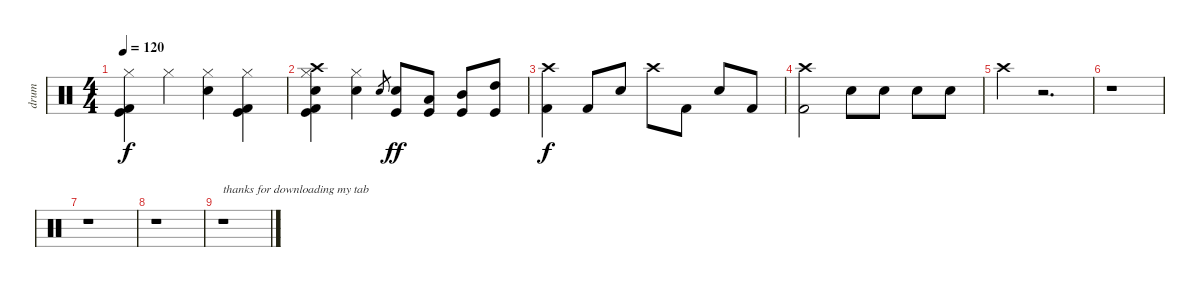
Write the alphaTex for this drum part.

\track ("drum" "drum") {instrument percussion}
\staff {score}
\articulation defaults
\ts (4 4)
\tempo 120
\clef neutral
\ks c
("Hi-Hat (closed)" "Kick (hit) 2" "Kick (hit)").4{dy f} "Hi-Hat (closed)".4 ("Hi-Hat (closed)" "Electric Snare (hit)").4 ("Hi-Hat (closed)" "Kick (hit) 2" "Kick (hit)").4 |
("Hi-Hat (closed)" "Crash high (hit)" "Electric Snare (hit)" "Kick (hit) 2" "Kick (hit)").4 ("Hi-Hat (closed)" "Electric Snare (hit)").4 "Electric Snare (hit)".8{gr} ("Electric Snare (hit)" "Kick (hit)").8{dy ff} ("Low Tom (hit)" "Kick (hit)").8 ("Mid Tom (hit)" "Kick (hit)").8 ("High Tom (hit)" "Kick (hit)").8 |
("Crash high (hit)" "Kick (hit) 2").4{dy f} "Kick (hit) 2".8 "Snare (hit) 2".8 "Crash high (hit)".8 "Kick (hit) 2".8 "Snare (hit) 2".8 "Kick (hit) 2".8 |
("Crash high (hit)" "Kick (hit) 2").2 "Electric Snare (hit)".8 "Electric Snare (hit)".8 "Electric Snare (hit)".8 "Electric Snare (hit)".8 |
"Crash high (hit)".4 r.2{d} |
r.1 |
r.1 |
r.1 |
r.1{txt "thanks for downloading my tab"}
